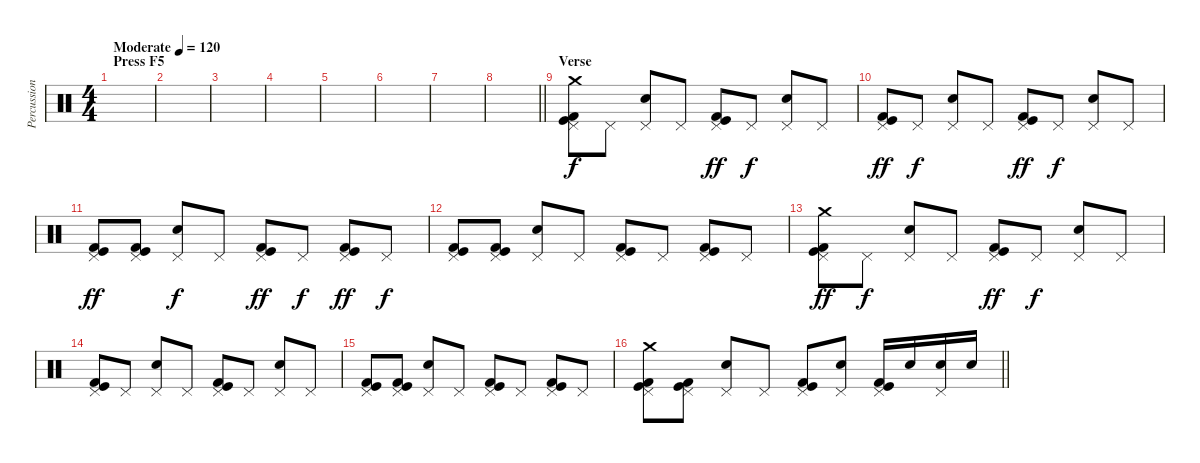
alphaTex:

\track ("Percussion" "Percussion") {instrument percussion}
\staff {score}
\articulation defaults
\ts (4 4)
\section ("" "Press F5")
\tempo (120 "Moderate")
\clef neutral
\ks c
|
|
|
|
|
|
|
\barLineRight lightlight
|
\section ("" "Verse")
("Crash medium (hit)" "Pedal Hi-Hat (hit)" "Kick (hit)" "Kick (hit) 2").8 "Pedal Hi-Hat (hit)".8{dy f} ("Pedal Hi-Hat (hit)" "Electric Snare (hit)").8 "Pedal Hi-Hat (hit)".8 ("Pedal Hi-Hat (hit)" "Kick (hit)" "Kick (hit) 2").8{dy ff} "Pedal Hi-Hat (hit)".8{dy f} ("Pedal Hi-Hat (hit)" "Electric Snare (hit)").8 "Pedal Hi-Hat (hit)".8 |
("Pedal Hi-Hat (hit)" "Kick (hit)" "Kick (hit) 2").8{dy ff} "Pedal Hi-Hat (hit)".8{dy f} ("Pedal Hi-Hat (hit)" "Electric Snare (hit)").8 "Pedal Hi-Hat (hit)".8 ("Pedal Hi-Hat (hit)" "Kick (hit)" "Kick (hit) 2").8{dy ff} "Pedal Hi-Hat (hit)".8{dy f} ("Pedal Hi-Hat (hit)" "Electric Snare (hit)").8 "Pedal Hi-Hat (hit)".8 |
("Pedal Hi-Hat (hit)" "Kick (hit)" "Kick (hit) 2").8{dy ff} ("Pedal Hi-Hat (hit)" "Kick (hit)" "Kick (hit) 2").8 ("Pedal Hi-Hat (hit)" "Electric Snare (hit)").8{dy f} "Pedal Hi-Hat (hit)".8 ("Pedal Hi-Hat (hit)" "Kick (hit)" "Kick (hit) 2").8{dy ff} "Pedal Hi-Hat (hit)".8{dy f} ("Pedal Hi-Hat (hit)" "Kick (hit)" "Kick (hit) 2").8{dy ff} "Pedal Hi-Hat (hit)".8{dy f} |
("Pedal Hi-Hat (hit)" "Kick (hit)" "Kick (hit) 2").8 ("Pedal Hi-Hat (hit)" "Kick (hit)" "Kick (hit) 2").8 ("Pedal Hi-Hat (hit)" "Electric Snare (hit)").8 "Pedal Hi-Hat (hit)".8 ("Pedal Hi-Hat (hit)" "Kick (hit)" "Kick (hit) 2").8 "Pedal Hi-Hat (hit)".8 ("Pedal Hi-Hat (hit)" "Kick (hit)" "Kick (hit) 2").8 "Pedal Hi-Hat (hit)".8 |
("Crash medium (hit)" "Pedal Hi-Hat (hit)" "Kick (hit)" "Kick (hit) 2").8{dy ff} "Pedal Hi-Hat (hit)".8{dy f} ("Pedal Hi-Hat (hit)" "Electric Snare (hit)").8 "Pedal Hi-Hat (hit)".8 ("Pedal Hi-Hat (hit)" "Kick (hit)" "Kick (hit) 2").8{dy ff} "Pedal Hi-Hat (hit)".8{dy f} ("Pedal Hi-Hat (hit)" "Electric Snare (hit)").8 "Pedal Hi-Hat (hit)".8 |
("Pedal Hi-Hat (hit)" "Kick (hit)" "Kick (hit) 2").8 "Pedal Hi-Hat (hit)".8 ("Pedal Hi-Hat (hit)" "Electric Snare (hit)").8 "Pedal Hi-Hat (hit)".8 ("Pedal Hi-Hat (hit)" "Kick (hit)" "Kick (hit) 2").8 "Pedal Hi-Hat (hit)".8 ("Pedal Hi-Hat (hit)" "Electric Snare (hit)").8 "Pedal Hi-Hat (hit)".8 |
("Pedal Hi-Hat (hit)" "Kick (hit)" "Kick (hit) 2").8 ("Pedal Hi-Hat (hit)" "Kick (hit)" "Kick (hit) 2").8 ("Pedal Hi-Hat (hit)" "Electric Snare (hit)").8 "Pedal Hi-Hat (hit)".8 ("Pedal Hi-Hat (hit)" "Kick (hit)" "Kick (hit) 2").8 "Pedal Hi-Hat (hit)".8 ("Pedal Hi-Hat (hit)" "Kick (hit)" "Kick (hit) 2").8 "Pedal Hi-Hat (hit)".8 |
\barLineRight lightlight
("Crash medium (hit)" "Pedal Hi-Hat (hit)" "Kick (hit)" "Kick (hit) 2").8 ("Pedal Hi-Hat (hit)" "Kick (hit)" "Kick (hit) 2").8 ("Pedal Hi-Hat (hit)" "Electric Snare (hit)").8 "Pedal Hi-Hat (hit)".8 ("Pedal Hi-Hat (hit)" "Kick (hit)" "Kick (hit) 2").8 ("Pedal Hi-Hat (hit)" "Electric Snare (hit)").8 ("Pedal Hi-Hat (hit)" "Kick (hit)" "Kick (hit) 2").16 "Electric Snare (hit)".16 ("Pedal Hi-Hat (hit)" "Electric Snare (hit)").16 "Electric Snare (hit)".16
